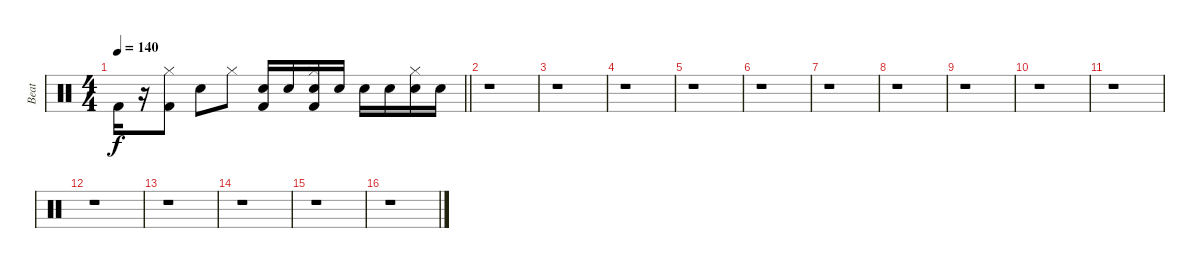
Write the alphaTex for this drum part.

\track ("Beat" "Beat") {instrument percussion}
\staff {score}
\articulation defaults
\ts (4 4)
\tempo 140
\clef neutral
\barLineRight lightlight
\ks c "Kick (hit) 2".16{dy f}
r.16 ("Kick (hit) 2" "Hi-Hat (closed)").8 "Snare (hit) 2".8 "Hi-Hat (closed)".8 ("Kick (hit) 2" "Snare (hit) 2").16 "Snare (hit) 2".16 ("Kick (hit) 2" "Hi-Hat (closed)" "Snare (hit) 2").16 "Snare (hit) 2".16 "Snare (hit) 2".16 "Snare (hit) 2".16 ("Hi-Hat (closed)" "Snare (hit) 2").16 "Snare (hit) 2".16 |
\section ("" " ")
r.1 |
r.1 |
r.1 |
r.1 |
r.1 |
r.1 |
r.1 |
r.1 |
r.1 |
r.1 |
r.1 |
r.1 |
r.1 |
r.1 |
r.1
